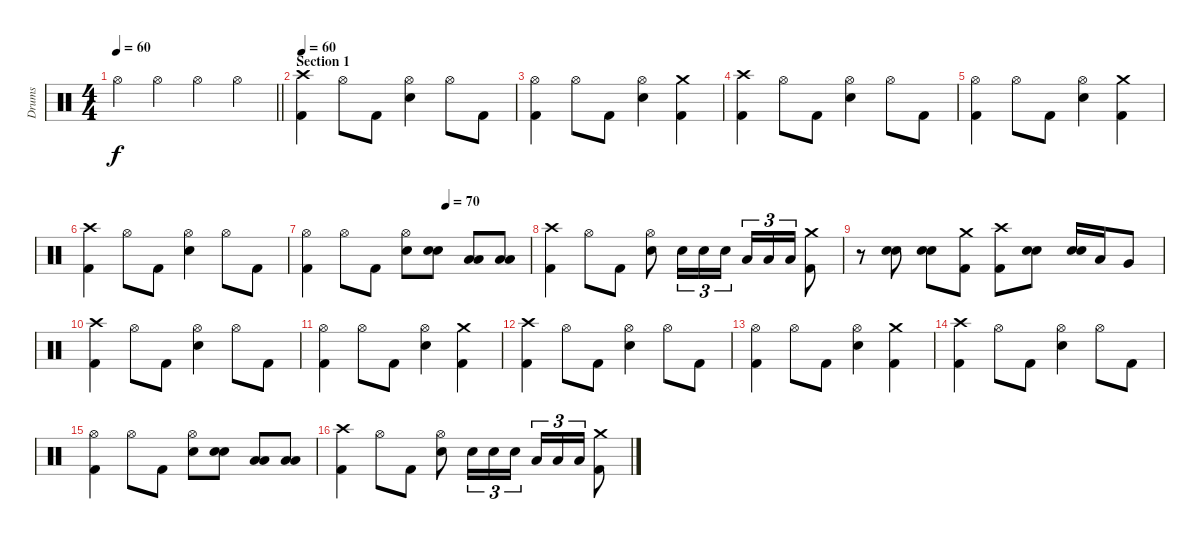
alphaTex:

\track ("Drums" "Drums") {instrument percussion}
\staff {score}
\articulation defaults
\ts (4 4)
\tempo 60
\tempo 40
\tempo 60
\clef neutral
\barLineRight lightlight
\ks c "Hi-Hat (open)".4{dy f} "Hi-Hat (open)".4 "Hi-Hat (open)".4 "Hi-Hat (open)".4
|
\section ("" "Section 1")
\tempo 60
("Crash high (hit)" "Kick (hit) 2").4 "Hi-Hat (open)".8 "Kick (hit) 2".8 ("Hi-Hat (open)" "Electric Snare (hit)").4 "Hi-Hat (open)".8 "Kick (hit) 2".8 |
("Hi-Hat (open)" "Kick (hit) 2").4 "Hi-Hat (open)".8 "Kick (hit) 2".8 ("Hi-Hat (open)" "Electric Snare (hit)").4 ("Crash medium (hit)" "Kick (hit) 2").4 |
("Crash high (hit)" "Kick (hit) 2").4 "Hi-Hat (open)".8 "Kick (hit) 2".8 ("Hi-Hat (open)" "Electric Snare (hit)").4 "Hi-Hat (open)".8 "Kick (hit) 2".8 |
("Hi-Hat (open)" "Kick (hit) 2").4 "Hi-Hat (open)".8 "Kick (hit) 2".8 ("Hi-Hat (open)" "Electric Snare (hit)").4 ("Crash medium (hit)" "Kick (hit) 2").4 |
("Crash high (hit)" "Kick (hit) 2").4 "Hi-Hat (open)".8 "Kick (hit) 2".8 ("Hi-Hat (open)" "Electric Snare (hit)").4 "Hi-Hat (open)".8 "Kick (hit) 2".8 |
\tempo (70 0.625)
("Hi-Hat (open)" "Kick (hit) 2").4 "Hi-Hat (open)".8 "Kick (hit) 2".8 ("Hi-Hat (open)" "Electric Snare (hit)").8 ("Electric Snare (hit)" "Electric Snare (hit)").8{bu 60} ("Low Tom (hit)" "Low Tom (hit)").8{bu 60} ("Low Tom (hit)" "Low Tom (hit)").8{bu 60} |
("Crash high (hit)" "Kick (hit) 2").4 "Hi-Hat (open)".8 "Kick (hit) 2".8 ("Hi-Hat (open)" "Electric Snare (hit)").8 "Electric Snare (hit)".16{tu (3 2)} "Electric Snare (hit)".16{tu (3 2)} "Electric Snare (hit)".16{tu (3 2)} "Low Tom (hit)".16{tu (3 2)} "Low Tom (hit)".16{tu (3 2)} "Low Tom (hit)".16{tu (3 2)} ("Crash medium (hit)" "Kick (hit) 2").8 |
r.8 ("Electric Snare (hit)" "Electric Snare (hit)").8{bu 60} ("Electric Snare (hit)" "Electric Snare (hit)").8{bu 60} ("Crash medium (hit)" "Kick (hit) 2").8 ("Crash high (hit)" "Kick (hit) 2").8 ("Electric Snare (hit)" "Electric Snare (hit)").8{bu 60} ("Electric Snare (hit)" "Electric Snare (hit)").16{bu 60} "Low Tom (hit)".16 "Very Low Tom (hit)".8 |
("Crash high (hit)" "Kick (hit) 2").4 "Hi-Hat (open)".8 "Kick (hit) 2".8 ("Hi-Hat (open)" "Electric Snare (hit)").4 "Hi-Hat (open)".8 "Kick (hit) 2".8 |
("Hi-Hat (open)" "Kick (hit) 2").4 "Hi-Hat (open)".8 "Kick (hit) 2".8 ("Hi-Hat (open)" "Electric Snare (hit)").4 ("Crash medium (hit)" "Kick (hit) 2").4 |
("Crash high (hit)" "Kick (hit) 2").4 "Hi-Hat (open)".8 "Kick (hit) 2".8 ("Hi-Hat (open)" "Electric Snare (hit)").4 "Hi-Hat (open)".8 "Kick (hit) 2".8 |
("Hi-Hat (open)" "Kick (hit) 2").4 "Hi-Hat (open)".8 "Kick (hit) 2".8 ("Hi-Hat (open)" "Electric Snare (hit)").4 ("Crash medium (hit)" "Kick (hit) 2").4 |
("Crash high (hit)" "Kick (hit) 2").4 "Hi-Hat (open)".8 "Kick (hit) 2".8 ("Hi-Hat (open)" "Electric Snare (hit)").4 "Hi-Hat (open)".8 "Kick (hit) 2".8 |
("Hi-Hat (open)" "Kick (hit) 2").4 "Hi-Hat (open)".8 "Kick (hit) 2".8 ("Hi-Hat (open)" "Electric Snare (hit)").8 ("Electric Snare (hit)" "Electric Snare (hit)").8{bu 60} ("Low Tom (hit)" "Low Tom (hit)").8{bu 60} ("Low Tom (hit)" "Low Tom (hit)").8{bu 60} |
("Crash high (hit)" "Kick (hit) 2").4 "Hi-Hat (open)".8 "Kick (hit) 2".8 ("Hi-Hat (open)" "Electric Snare (hit)").8 "Electric Snare (hit)".16{tu (3 2)} "Electric Snare (hit)".16{tu (3 2)} "Electric Snare (hit)".16{tu (3 2)} "Low Tom (hit)".16{tu (3 2)} "Low Tom (hit)".16{tu (3 2)} "Low Tom (hit)".16{tu (3 2)} ("Crash medium (hit)" "Kick (hit) 2").8
